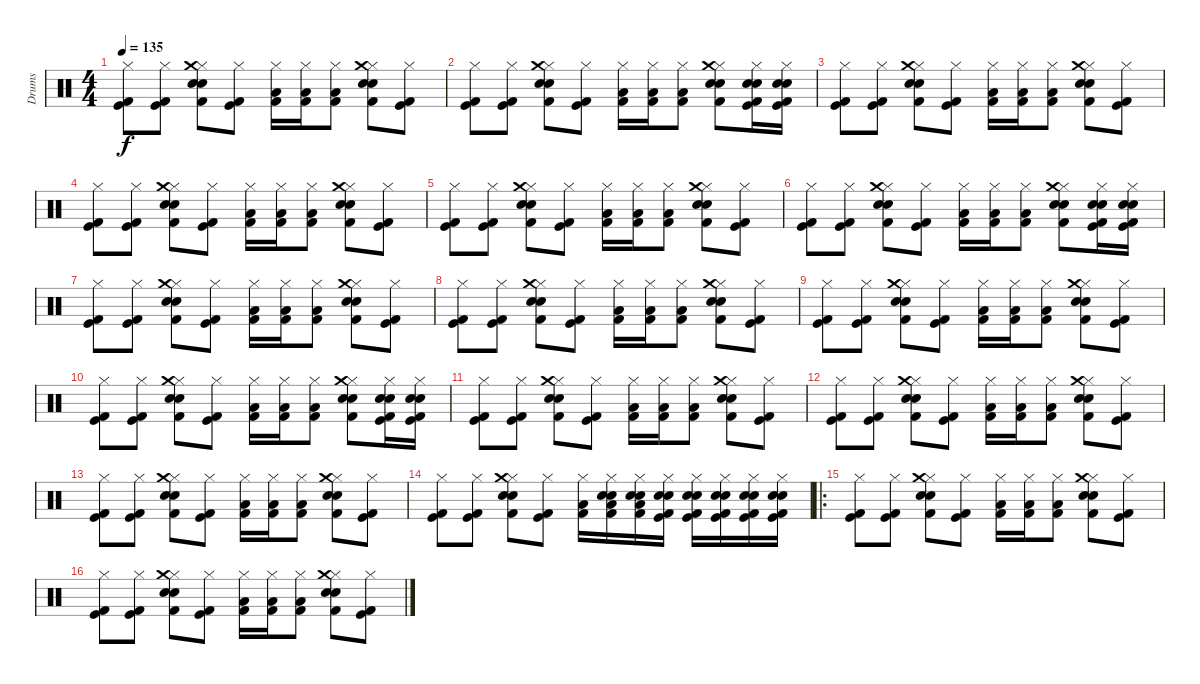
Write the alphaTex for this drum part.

\track ("Drums" "Drums") {instrument percussion}
\staff {score}
\articulation defaults
\ts (4 4)
\tempo 135
\clef neutral
\ks c
("Hi-Hat (closed)" "Kick (hit)" "Kick (hit) 2").8{dy f} ("Hi-Hat (closed)" "Kick (hit)" "Kick (hit) 2").8 ("Hi-Hat (closed)" "Electric Snare (hit)" "Crash medium (hit)" "Snare (hit) 2" "Kick (hit) 2").8 ("Hi-Hat (closed)" "Kick (hit)" "Kick (hit) 2").8 ("Hi-Hat (closed)" "Low Floor Tom (hit)" "Kick (hit) 2").16 ("Hi-Hat (closed)" "Low Floor Tom (hit)" "Kick (hit) 2").16 ("Hi-Hat (closed)" "Low Floor Tom (hit)" "Kick (hit) 2").8 ("Hi-Hat (closed)" "Electric Snare (hit)" "Crash medium (hit)" "Snare (hit) 2" "Kick (hit) 2").8 ("Hi-Hat (closed)" "Kick (hit)" "Kick (hit) 2").8 |
("Hi-Hat (closed)" "Kick (hit)" "Kick (hit) 2").8 ("Hi-Hat (closed)" "Kick (hit)" "Kick (hit) 2").8 ("Hi-Hat (closed)" "Electric Snare (hit)" "Crash medium (hit)" "Snare (hit) 2" "Kick (hit) 2").8 ("Hi-Hat (closed)" "Kick (hit)" "Kick (hit) 2").8 ("Hi-Hat (closed)" "Low Floor Tom (hit)" "Kick (hit) 2").16 ("Hi-Hat (closed)" "Low Floor Tom (hit)" "Kick (hit) 2").16 ("Hi-Hat (closed)" "Low Floor Tom (hit)" "Kick (hit) 2").8 ("Hi-Hat (closed)" "Electric Snare (hit)" "Crash medium (hit)" "Snare (hit) 2" "Kick (hit) 2").8 ("Electric Snare (hit)" "Snare (hit) 2" "Hi-Hat (closed)" "Kick (hit)" "Kick (hit) 2").16 ("Electric Snare (hit)" "Snare (hit) 2" "Hi-Hat (closed)" "Kick (hit)" "Kick (hit) 2").16 |
("Hi-Hat (closed)" "Kick (hit)" "Kick (hit) 2").8 ("Hi-Hat (closed)" "Kick (hit)" "Kick (hit) 2").8 ("Hi-Hat (closed)" "Electric Snare (hit)" "Crash medium (hit)" "Snare (hit) 2" "Kick (hit) 2").8 ("Hi-Hat (closed)" "Kick (hit)" "Kick (hit) 2").8 ("Hi-Hat (closed)" "Low Floor Tom (hit)" "Kick (hit) 2").16 ("Hi-Hat (closed)" "Low Floor Tom (hit)" "Kick (hit) 2").16 ("Hi-Hat (closed)" "Low Floor Tom (hit)" "Kick (hit) 2").8 ("Hi-Hat (closed)" "Electric Snare (hit)" "Crash medium (hit)" "Snare (hit) 2" "Kick (hit) 2").8 ("Hi-Hat (closed)" "Kick (hit)" "Kick (hit) 2").8 |
("Hi-Hat (closed)" "Kick (hit)" "Kick (hit) 2").8 ("Hi-Hat (closed)" "Kick (hit)" "Kick (hit) 2").8 ("Hi-Hat (closed)" "Electric Snare (hit)" "Crash medium (hit)" "Snare (hit) 2" "Kick (hit) 2").8 ("Hi-Hat (closed)" "Kick (hit)" "Kick (hit) 2").8 ("Hi-Hat (closed)" "Low Floor Tom (hit)" "Kick (hit) 2").16 ("Hi-Hat (closed)" "Low Floor Tom (hit)" "Kick (hit) 2").16 ("Hi-Hat (closed)" "Low Floor Tom (hit)" "Kick (hit) 2").8 ("Hi-Hat (closed)" "Electric Snare (hit)" "Crash medium (hit)" "Snare (hit) 2" "Kick (hit) 2").8 ("Hi-Hat (closed)" "Kick (hit)" "Kick (hit) 2").8 |
("Hi-Hat (closed)" "Kick (hit)" "Kick (hit) 2").8 ("Hi-Hat (closed)" "Kick (hit)" "Kick (hit) 2").8 ("Hi-Hat (closed)" "Electric Snare (hit)" "Crash medium (hit)" "Snare (hit) 2" "Kick (hit) 2").8 ("Hi-Hat (closed)" "Kick (hit)" "Kick (hit) 2").8 ("Hi-Hat (closed)" "Low Floor Tom (hit)" "Kick (hit) 2").16 ("Hi-Hat (closed)" "Low Floor Tom (hit)" "Kick (hit) 2").16 ("Hi-Hat (closed)" "Low Floor Tom (hit)" "Kick (hit) 2").8 ("Hi-Hat (closed)" "Electric Snare (hit)" "Crash medium (hit)" "Snare (hit) 2" "Kick (hit) 2").8 ("Hi-Hat (closed)" "Kick (hit)" "Kick (hit) 2").8 |
("Hi-Hat (closed)" "Kick (hit)" "Kick (hit) 2").8 ("Hi-Hat (closed)" "Kick (hit)" "Kick (hit) 2").8 ("Hi-Hat (closed)" "Electric Snare (hit)" "Crash medium (hit)" "Snare (hit) 2" "Kick (hit) 2").8 ("Hi-Hat (closed)" "Kick (hit)" "Kick (hit) 2").8 ("Hi-Hat (closed)" "Low Floor Tom (hit)" "Kick (hit) 2").16 ("Hi-Hat (closed)" "Low Floor Tom (hit)" "Kick (hit) 2").16 ("Hi-Hat (closed)" "Low Floor Tom (hit)" "Kick (hit) 2").8 ("Hi-Hat (closed)" "Electric Snare (hit)" "Crash medium (hit)" "Snare (hit) 2" "Kick (hit) 2").8 ("Electric Snare (hit)" "Snare (hit) 2" "Hi-Hat (closed)" "Kick (hit)" "Kick (hit) 2").16 ("Electric Snare (hit)" "Snare (hit) 2" "Hi-Hat (closed)" "Kick (hit)" "Kick (hit) 2").16 |
("Hi-Hat (closed)" "Kick (hit)" "Kick (hit) 2").8 ("Hi-Hat (closed)" "Kick (hit)" "Kick (hit) 2").8 ("Hi-Hat (closed)" "Electric Snare (hit)" "Crash medium (hit)" "Snare (hit) 2" "Kick (hit) 2").8 ("Hi-Hat (closed)" "Kick (hit)" "Kick (hit) 2").8 ("Hi-Hat (closed)" "Low Floor Tom (hit)" "Kick (hit) 2").16 ("Hi-Hat (closed)" "Low Floor Tom (hit)" "Kick (hit) 2").16 ("Hi-Hat (closed)" "Low Floor Tom (hit)" "Kick (hit) 2").8 ("Hi-Hat (closed)" "Electric Snare (hit)" "Crash medium (hit)" "Snare (hit) 2" "Kick (hit) 2").8 ("Hi-Hat (closed)" "Kick (hit)" "Kick (hit) 2").8 |
("Hi-Hat (closed)" "Kick (hit)" "Kick (hit) 2").8 ("Hi-Hat (closed)" "Kick (hit)" "Kick (hit) 2").8 ("Hi-Hat (closed)" "Electric Snare (hit)" "Crash medium (hit)" "Snare (hit) 2" "Kick (hit) 2").8 ("Hi-Hat (closed)" "Kick (hit)" "Kick (hit) 2").8 ("Hi-Hat (closed)" "Low Floor Tom (hit)" "Kick (hit) 2").16 ("Hi-Hat (closed)" "Low Floor Tom (hit)" "Kick (hit) 2").16 ("Hi-Hat (closed)" "Low Floor Tom (hit)" "Kick (hit) 2").8 ("Hi-Hat (closed)" "Electric Snare (hit)" "Crash medium (hit)" "Snare (hit) 2" "Kick (hit) 2").8 ("Hi-Hat (closed)" "Kick (hit)" "Kick (hit) 2").8 |
("Hi-Hat (closed)" "Kick (hit)" "Kick (hit) 2").8 ("Hi-Hat (closed)" "Kick (hit)" "Kick (hit) 2").8 ("Hi-Hat (closed)" "Electric Snare (hit)" "Crash medium (hit)" "Snare (hit) 2" "Kick (hit) 2").8 ("Hi-Hat (closed)" "Kick (hit)" "Kick (hit) 2").8 ("Hi-Hat (closed)" "Low Floor Tom (hit)" "Kick (hit) 2").16 ("Hi-Hat (closed)" "Low Floor Tom (hit)" "Kick (hit) 2").16 ("Hi-Hat (closed)" "Low Floor Tom (hit)" "Kick (hit) 2").8 ("Hi-Hat (closed)" "Electric Snare (hit)" "Crash medium (hit)" "Snare (hit) 2" "Kick (hit) 2").8 ("Hi-Hat (closed)" "Kick (hit)" "Kick (hit) 2").8 |
("Hi-Hat (closed)" "Kick (hit)" "Kick (hit) 2").8 ("Hi-Hat (closed)" "Kick (hit)" "Kick (hit) 2").8 ("Hi-Hat (closed)" "Electric Snare (hit)" "Crash medium (hit)" "Snare (hit) 2" "Kick (hit) 2").8 ("Hi-Hat (closed)" "Kick (hit)" "Kick (hit) 2").8 ("Hi-Hat (closed)" "Low Floor Tom (hit)" "Kick (hit) 2").16 ("Hi-Hat (closed)" "Low Floor Tom (hit)" "Kick (hit) 2").16 ("Hi-Hat (closed)" "Low Floor Tom (hit)" "Kick (hit) 2").8 ("Hi-Hat (closed)" "Electric Snare (hit)" "Crash medium (hit)" "Snare (hit) 2" "Kick (hit) 2").8 ("Electric Snare (hit)" "Snare (hit) 2" "Hi-Hat (closed)" "Kick (hit)" "Kick (hit) 2").16 ("Electric Snare (hit)" "Snare (hit) 2" "Hi-Hat (closed)" "Kick (hit)" "Kick (hit) 2").16 |
("Hi-Hat (closed)" "Kick (hit)" "Kick (hit) 2").8 ("Hi-Hat (closed)" "Kick (hit)" "Kick (hit) 2").8 ("Hi-Hat (closed)" "Electric Snare (hit)" "Crash medium (hit)" "Snare (hit) 2" "Kick (hit) 2").8 ("Hi-Hat (closed)" "Kick (hit)" "Kick (hit) 2").8 ("Hi-Hat (closed)" "Low Floor Tom (hit)" "Kick (hit) 2").16 ("Hi-Hat (closed)" "Low Floor Tom (hit)" "Kick (hit) 2").16 ("Hi-Hat (closed)" "Low Floor Tom (hit)" "Kick (hit) 2").8 ("Hi-Hat (closed)" "Electric Snare (hit)" "Crash medium (hit)" "Snare (hit) 2" "Kick (hit) 2").8 ("Hi-Hat (closed)" "Kick (hit)" "Kick (hit) 2").8 |
("Hi-Hat (closed)" "Kick (hit)" "Kick (hit) 2").8 ("Hi-Hat (closed)" "Kick (hit)" "Kick (hit) 2").8 ("Hi-Hat (closed)" "Electric Snare (hit)" "Crash medium (hit)" "Snare (hit) 2" "Kick (hit) 2").8 ("Hi-Hat (closed)" "Kick (hit)" "Kick (hit) 2").8 ("Hi-Hat (closed)" "Low Floor Tom (hit)" "Kick (hit) 2").16 ("Hi-Hat (closed)" "Low Floor Tom (hit)" "Kick (hit) 2").16 ("Hi-Hat (closed)" "Low Floor Tom (hit)" "Kick (hit) 2").8 ("Hi-Hat (closed)" "Electric Snare (hit)" "Crash medium (hit)" "Snare (hit) 2" "Kick (hit) 2").8 ("Hi-Hat (closed)" "Kick (hit)" "Kick (hit) 2").8 |
("Hi-Hat (closed)" "Kick (hit)" "Kick (hit) 2").8 ("Hi-Hat (closed)" "Kick (hit)" "Kick (hit) 2").8 ("Hi-Hat (closed)" "Electric Snare (hit)" "Crash medium (hit)" "Snare (hit) 2" "Kick (hit) 2").8 ("Hi-Hat (closed)" "Kick (hit)" "Kick (hit) 2").8 ("Hi-Hat (closed)" "Low Floor Tom (hit)" "Kick (hit) 2").16 ("Hi-Hat (closed)" "Low Floor Tom (hit)" "Kick (hit) 2").16 ("Hi-Hat (closed)" "Low Floor Tom (hit)" "Kick (hit) 2").8 ("Hi-Hat (closed)" "Electric Snare (hit)" "Crash medium (hit)" "Snare (hit) 2" "Kick (hit) 2").8 ("Hi-Hat (closed)" "Kick (hit)" "Kick (hit) 2").8 |
("Hi-Hat (closed)" "Kick (hit)" "Kick (hit) 2").8 ("Hi-Hat (closed)" "Kick (hit)" "Kick (hit) 2").8 ("Hi-Hat (closed)" "Electric Snare (hit)" "Crash medium (hit)" "Snare (hit) 2" "Kick (hit) 2").8 ("Hi-Hat (closed)" "Kick (hit)" "Kick (hit) 2").8 ("Hi-Hat (closed)" "Low Floor Tom (hit)" "Kick (hit) 2").16 ("Electric Snare (hit)" "Snare (hit) 2" "Hi-Hat (closed)" "Low Floor Tom (hit)" "Kick (hit) 2").16 ("Electric Snare (hit)" "Snare (hit) 2" "Hi-Hat (closed)" "Low Floor Tom (hit)" "Kick (hit) 2").16 ("Electric Snare (hit)" "Snare (hit) 2" "Hi-Hat (closed)" "Kick (hit)" "Kick (hit) 2").16 ("Electric Snare (hit)" "Snare (hit) 2" "Hi-Hat (closed)" "Kick (hit)" "Kick (hit) 2").16 ("Electric Snare (hit)" "Snare (hit) 2" "Hi-Hat (closed)" "Kick (hit)" "Kick (hit) 2").16 ("Electric Snare (hit)" "Snare (hit) 2" "Hi-Hat (closed)" "Kick (hit)" "Kick (hit) 2").16 ("Electric Snare (hit)" "Snare (hit) 2" "Hi-Hat (closed)" "Kick (hit)" "Kick (hit) 2").16 |
\ro
("Hi-Hat (closed)" "Kick (hit)" "Kick (hit) 2").8 ("Hi-Hat (closed)" "Kick (hit)" "Kick (hit) 2").8 ("Hi-Hat (closed)" "Electric Snare (hit)" "Crash medium (hit)" "Snare (hit) 2" "Kick (hit) 2").8 ("Hi-Hat (closed)" "Kick (hit)" "Kick (hit) 2").8 ("Hi-Hat (closed)" "Low Floor Tom (hit)" "Kick (hit) 2").16 ("Hi-Hat (closed)" "Low Floor Tom (hit)" "Kick (hit) 2").16 ("Hi-Hat (closed)" "Low Floor Tom (hit)" "Kick (hit) 2").8 ("Hi-Hat (closed)" "Electric Snare (hit)" "Crash medium (hit)" "Snare (hit) 2" "Kick (hit) 2").8 ("Hi-Hat (closed)" "Kick (hit)" "Kick (hit) 2").8 |
("Hi-Hat (closed)" "Kick (hit)" "Kick (hit) 2").8 ("Hi-Hat (closed)" "Kick (hit)" "Kick (hit) 2").8 ("Hi-Hat (closed)" "Electric Snare (hit)" "Crash medium (hit)" "Snare (hit) 2" "Kick (hit) 2").8 ("Hi-Hat (closed)" "Kick (hit)" "Kick (hit) 2").8 ("Hi-Hat (closed)" "Low Floor Tom (hit)" "Kick (hit) 2").16 ("Hi-Hat (closed)" "Low Floor Tom (hit)" "Kick (hit) 2").16 ("Hi-Hat (closed)" "Low Floor Tom (hit)" "Kick (hit) 2").8 ("Hi-Hat (closed)" "Electric Snare (hit)" "Crash medium (hit)" "Snare (hit) 2" "Kick (hit) 2").8 ("Hi-Hat (closed)" "Kick (hit)" "Kick (hit) 2").8
